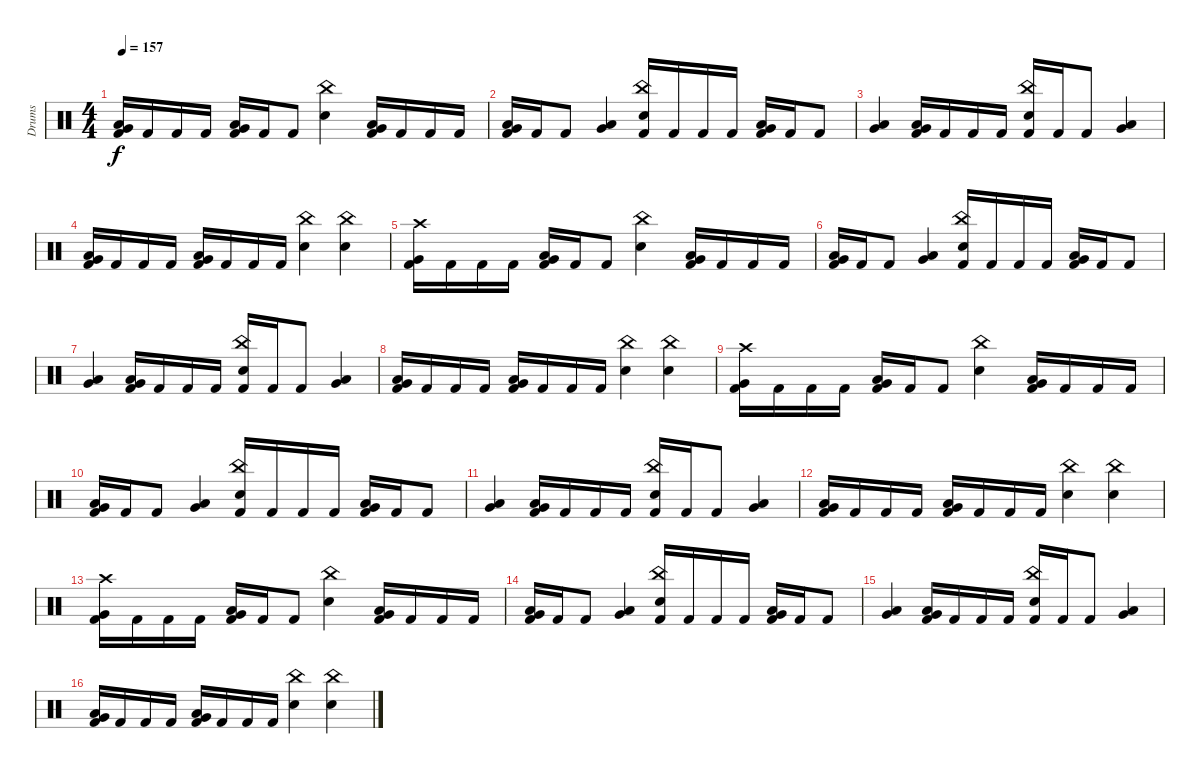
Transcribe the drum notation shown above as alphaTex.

\track ("Drums" "Drums") {instrument percussion}
\staff {score}
\articulation defaults
\ts (4 4)
\tempo 157
\clef neutral
\ks c
("Low Tom (hit)" "Very Low Tom (hit)" "Kick (hit) 2").16{dy f} "Kick (hit) 2".16 "Kick (hit) 2".16 "Kick (hit) 2".16 ("Low Tom (hit)" "Very Low Tom (hit)" "Kick (hit) 2").16 "Kick (hit) 2".16 "Kick (hit) 2".8 ("China (hit)" "Electric Snare (hit)").4 ("Low Tom (hit)" "Very Low Tom (hit)" "Kick (hit) 2").16 "Kick (hit) 2".16 "Kick (hit) 2".16 "Kick (hit) 2".16 |
("Low Tom (hit)" "Very Low Tom (hit)" "Kick (hit) 2").16 "Kick (hit) 2".16 "Kick (hit) 2".8 ("Low Tom (hit)" "Very Low Tom (hit)").4 ("China (hit)" "Electric Snare (hit)" "Kick (hit) 2").16 "Kick (hit) 2".16 "Kick (hit) 2".16 "Kick (hit) 2".16 ("Low Tom (hit)" "Very Low Tom (hit)" "Kick (hit) 2").16 "Kick (hit) 2".16 "Kick (hit) 2".8 |
("Low Tom (hit)" "Very Low Tom (hit)").4 ("Low Tom (hit)" "Very Low Tom (hit)" "Kick (hit) 2").16 "Kick (hit) 2".16 "Kick (hit) 2".16 "Kick (hit) 2".16 ("China (hit)" "Electric Snare (hit)" "Kick (hit) 2").16 "Kick (hit) 2".16 "Kick (hit) 2".8 ("Low Tom (hit)" "Very Low Tom (hit)").4 |
("Low Tom (hit)" "Very Low Tom (hit)" "Kick (hit) 2").16 "Kick (hit) 2".16 "Kick (hit) 2".16 "Kick (hit) 2".16 ("Low Tom (hit)" "Very Low Tom (hit)" "Kick (hit) 2").16 "Kick (hit) 2".16 "Kick (hit) 2".16 "Kick (hit) 2".16 ("China (hit)" "Electric Snare (hit)").4 ("China (hit)" "Electric Snare (hit)").4 |
("Crash high (hit)" "Very Low Tom (hit)" "Kick (hit) 2").16 "Kick (hit) 2".16 "Kick (hit) 2".16 "Kick (hit) 2".16 ("Low Tom (hit)" "Very Low Tom (hit)" "Kick (hit) 2").16 "Kick (hit) 2".16 "Kick (hit) 2".8 ("China (hit)" "Electric Snare (hit)").4 ("Low Tom (hit)" "Very Low Tom (hit)" "Kick (hit) 2").16 "Kick (hit) 2".16 "Kick (hit) 2".16 "Kick (hit) 2".16 |
("Low Tom (hit)" "Very Low Tom (hit)" "Kick (hit) 2").16 "Kick (hit) 2".16 "Kick (hit) 2".8 ("Low Tom (hit)" "Very Low Tom (hit)").4 ("China (hit)" "Electric Snare (hit)" "Kick (hit) 2").16 "Kick (hit) 2".16 "Kick (hit) 2".16 "Kick (hit) 2".16 ("Low Tom (hit)" "Very Low Tom (hit)" "Kick (hit) 2").16 "Kick (hit) 2".16 "Kick (hit) 2".8 |
("Low Tom (hit)" "Very Low Tom (hit)").4 ("Low Tom (hit)" "Very Low Tom (hit)" "Kick (hit) 2").16 "Kick (hit) 2".16 "Kick (hit) 2".16 "Kick (hit) 2".16 ("China (hit)" "Electric Snare (hit)" "Kick (hit) 2").16 "Kick (hit) 2".16 "Kick (hit) 2".8 ("Low Tom (hit)" "Very Low Tom (hit)").4 |
("Low Tom (hit)" "Very Low Tom (hit)" "Kick (hit) 2").16 "Kick (hit) 2".16 "Kick (hit) 2".16 "Kick (hit) 2".16 ("Low Tom (hit)" "Very Low Tom (hit)" "Kick (hit) 2").16 "Kick (hit) 2".16 "Kick (hit) 2".16 "Kick (hit) 2".16 ("China (hit)" "Electric Snare (hit)").4 ("China (hit)" "Electric Snare (hit)").4 |
("Crash high (hit)" "Very Low Tom (hit)" "Kick (hit) 2").16 "Kick (hit) 2".16 "Kick (hit) 2".16 "Kick (hit) 2".16 ("Low Tom (hit)" "Very Low Tom (hit)" "Kick (hit) 2").16 "Kick (hit) 2".16 "Kick (hit) 2".8 ("China (hit)" "Electric Snare (hit)").4 ("Low Tom (hit)" "Very Low Tom (hit)" "Kick (hit) 2").16 "Kick (hit) 2".16 "Kick (hit) 2".16 "Kick (hit) 2".16 |
("Low Tom (hit)" "Very Low Tom (hit)" "Kick (hit) 2").16 "Kick (hit) 2".16 "Kick (hit) 2".8 ("Low Tom (hit)" "Very Low Tom (hit)").4 ("China (hit)" "Electric Snare (hit)" "Kick (hit) 2").16 "Kick (hit) 2".16 "Kick (hit) 2".16 "Kick (hit) 2".16 ("Low Tom (hit)" "Very Low Tom (hit)" "Kick (hit) 2").16 "Kick (hit) 2".16 "Kick (hit) 2".8 |
("Low Tom (hit)" "Very Low Tom (hit)").4 ("Low Tom (hit)" "Very Low Tom (hit)" "Kick (hit) 2").16 "Kick (hit) 2".16 "Kick (hit) 2".16 "Kick (hit) 2".16 ("China (hit)" "Electric Snare (hit)" "Kick (hit) 2").16 "Kick (hit) 2".16 "Kick (hit) 2".8 ("Low Tom (hit)" "Very Low Tom (hit)").4 |
("Low Tom (hit)" "Very Low Tom (hit)" "Kick (hit) 2").16 "Kick (hit) 2".16 "Kick (hit) 2".16 "Kick (hit) 2".16 ("Low Tom (hit)" "Very Low Tom (hit)" "Kick (hit) 2").16 "Kick (hit) 2".16 "Kick (hit) 2".16 "Kick (hit) 2".16 ("China (hit)" "Electric Snare (hit)").4 ("China (hit)" "Electric Snare (hit)").4 |
("Crash high (hit)" "Very Low Tom (hit)" "Kick (hit) 2").16 "Kick (hit) 2".16 "Kick (hit) 2".16 "Kick (hit) 2".16 ("Low Tom (hit)" "Very Low Tom (hit)" "Kick (hit) 2").16 "Kick (hit) 2".16 "Kick (hit) 2".8 ("China (hit)" "Electric Snare (hit)").4 ("Low Tom (hit)" "Very Low Tom (hit)" "Kick (hit) 2").16 "Kick (hit) 2".16 "Kick (hit) 2".16 "Kick (hit) 2".16 |
("Low Tom (hit)" "Very Low Tom (hit)" "Kick (hit) 2").16 "Kick (hit) 2".16 "Kick (hit) 2".8 ("Low Tom (hit)" "Very Low Tom (hit)").4 ("China (hit)" "Electric Snare (hit)" "Kick (hit) 2").16 "Kick (hit) 2".16 "Kick (hit) 2".16 "Kick (hit) 2".16 ("Low Tom (hit)" "Very Low Tom (hit)" "Kick (hit) 2").16 "Kick (hit) 2".16 "Kick (hit) 2".8 |
("Low Tom (hit)" "Very Low Tom (hit)").4 ("Low Tom (hit)" "Very Low Tom (hit)" "Kick (hit) 2").16 "Kick (hit) 2".16 "Kick (hit) 2".16 "Kick (hit) 2".16 ("China (hit)" "Electric Snare (hit)" "Kick (hit) 2").16 "Kick (hit) 2".16 "Kick (hit) 2".8 ("Low Tom (hit)" "Very Low Tom (hit)").4 |
("Low Tom (hit)" "Very Low Tom (hit)" "Kick (hit) 2").16 "Kick (hit) 2".16 "Kick (hit) 2".16 "Kick (hit) 2".16 ("Low Tom (hit)" "Very Low Tom (hit)" "Kick (hit) 2").16 "Kick (hit) 2".16 "Kick (hit) 2".16 "Kick (hit) 2".16 ("China (hit)" "Electric Snare (hit)").4 ("China (hit)" "Electric Snare (hit)").4
